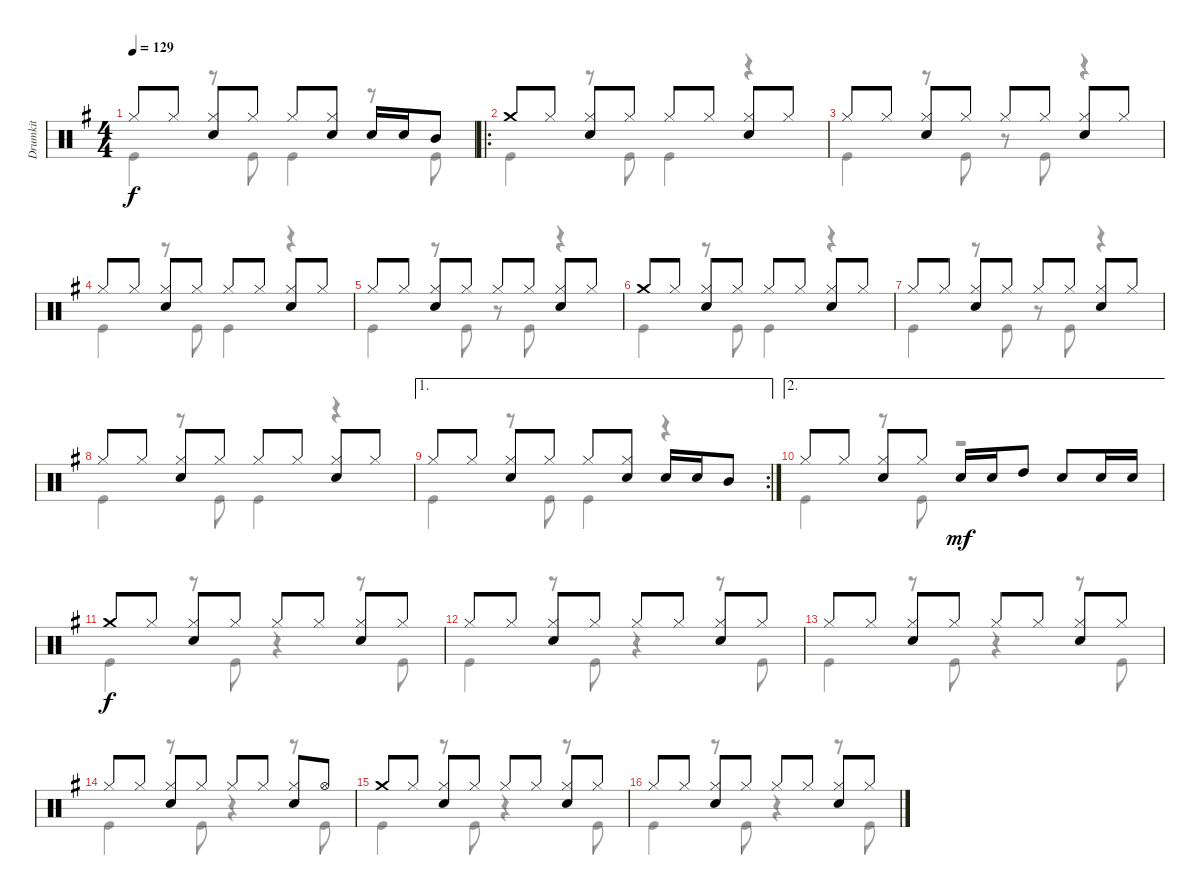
\track ("Drumkit" "Drumkit") {instrument percussion}
\staff {score}
\articulation defaults
\voice
\ts (4 4)
\tempo 129
\clef neutral
\ks g "Hi-Hat (closed)".8{dy f} "Hi-Hat (closed)".8
("Hi-Hat (closed)" "Snare (hit) 2").8 "Hi-Hat (closed)".8 "Hi-Hat (closed)".8 ("Hi-Hat (closed)" "Snare (hit) 2").8 "Snare (hit) 2".16 "Snare (hit) 2".16 "Mid Tom (hit)".8 |
\ro "Crash medium (hit)".8 "Hi-Hat (closed)".8
("Hi-Hat (closed)" "Snare (hit) 2").8 "Hi-Hat (closed)".8 "Hi-Hat (closed)".8 "Hi-Hat (closed)".8 ("Hi-Hat (closed)" "Snare (hit) 2").8 "Hi-Hat (closed)".8 |
"Hi-Hat (closed)".8 "Hi-Hat (closed)".8 ("Hi-Hat (closed)" "Snare (hit) 2").8 "Hi-Hat (closed)".8 "Hi-Hat (closed)".8 "Hi-Hat (closed)".8 ("Hi-Hat (closed)" "Snare (hit) 2").8 "Hi-Hat (closed)".8 |
"Hi-Hat (closed)".8 "Hi-Hat (closed)".8 ("Hi-Hat (closed)" "Snare (hit) 2").8 "Hi-Hat (closed)".8 "Hi-Hat (closed)".8 "Hi-Hat (closed)".8 ("Hi-Hat (closed)" "Snare (hit) 2").8 "Hi-Hat (closed)".8 |
"Hi-Hat (closed)".8 "Hi-Hat (closed)".8 ("Hi-Hat (closed)" "Snare (hit) 2").8 "Hi-Hat (closed)".8 "Hi-Hat (closed)".8 "Hi-Hat (closed)".8 ("Hi-Hat (closed)" "Snare (hit) 2").8 "Hi-Hat (closed)".8 |
"Crash medium (hit)".8 "Hi-Hat (closed)".8 ("Hi-Hat (closed)" "Snare (hit) 2").8 "Hi-Hat (closed)".8 "Hi-Hat (closed)".8 "Hi-Hat (closed)".8 ("Hi-Hat (closed)" "Snare (hit) 2").8 "Hi-Hat (closed)".8 |
"Hi-Hat (closed)".8 "Hi-Hat (closed)".8 ("Hi-Hat (closed)" "Snare (hit) 2").8 "Hi-Hat (closed)".8 "Hi-Hat (closed)".8 "Hi-Hat (closed)".8 ("Hi-Hat (closed)" "Snare (hit) 2").8 "Hi-Hat (closed)".8 |
"Hi-Hat (closed)".8 "Hi-Hat (closed)".8 ("Hi-Hat (closed)" "Snare (hit) 2").8 "Hi-Hat (closed)".8 "Hi-Hat (closed)".8 "Hi-Hat (closed)".8 ("Hi-Hat (closed)" "Snare (hit) 2").8 "Hi-Hat (closed)".8 |
\ae 1
\rc 2 "Hi-Hat (closed)".8 "Hi-Hat (closed)".8
("Hi-Hat (closed)" "Snare (hit) 2").8 "Hi-Hat (closed)".8 "Hi-Hat (closed)".8 ("Snare (hit) 2" "Hi-Hat (closed)").8 "Snare (hit) 2".16 "Snare (hit) 2".16 "Mid Tom (hit)".8 |
\ae 2 "Hi-Hat (closed)".8 "Hi-Hat (closed)".8
("Hi-Hat (closed)" "Snare (hit) 2").8 "Hi-Hat (closed)".8 "Snare (hit) 2".16{dy mf} "Snare (hit) 2".16 "High Tom (hit)".8 "Snare (hit) 2".8 "Snare (hit) 2".16 "Snare (hit) 2".16 |
"Crash medium (hit)".8{dy f} "Hi-Hat (closed)".8 ("Hi-Hat (closed)" "Snare (hit) 2").8 "Hi-Hat (closed)".8 "Hi-Hat (closed)".8 "Hi-Hat (closed)".8 ("Hi-Hat (closed)" "Snare (hit) 2").8 "Hi-Hat (closed)".8 |
"Hi-Hat (closed)".8 "Hi-Hat (closed)".8 ("Hi-Hat (closed)" "Snare (hit) 2").8 "Hi-Hat (closed)".8 "Hi-Hat (closed)".8 "Hi-Hat (closed)".8 ("Hi-Hat (closed)" "Snare (hit) 2").8 "Hi-Hat (closed)".8 |
"Hi-Hat (closed)".8 "Hi-Hat (closed)".8 ("Hi-Hat (closed)" "Snare (hit) 2").8 "Hi-Hat (closed)".8 "Hi-Hat (closed)".8 "Hi-Hat (closed)".8 ("Hi-Hat (closed)" "Snare (hit) 2").8 "Hi-Hat (closed)".8 |
"Hi-Hat (closed)".8 "Hi-Hat (closed)".8 ("Hi-Hat (closed)" "Snare (hit) 2").8 "Hi-Hat (closed)".8 "Hi-Hat (closed)".8 "Hi-Hat (closed)".8 ("Hi-Hat (closed)" "Snare (hit) 2").8 "Hi-Hat (open)".8 |
"Crash medium (hit)".8 "Hi-Hat (closed)".8 ("Hi-Hat (closed)" "Snare (hit) 2").8 "Hi-Hat (closed)".8 "Hi-Hat (closed)".8 "Hi-Hat (closed)".8 ("Hi-Hat (closed)" "Snare (hit) 2").8 "Hi-Hat (closed)".8 |
"Hi-Hat (closed)".8 "Hi-Hat (closed)".8 ("Hi-Hat (closed)" "Snare (hit) 2").8 "Hi-Hat (closed)".8 "Hi-Hat (closed)".8 "Hi-Hat (closed)".8 ("Hi-Hat (closed)" "Snare (hit) 2").8 "Hi-Hat (closed)".8
\voice
\clef neutral
\ottava regular
\simile none
\ks g "Kick (hit)".4{dy f}
r.8 "Kick (hit)".8 "Kick (hit)".4 r.8 "Kick (hit)".8 |
"Kick (hit)".4 r.8 "Kick (hit)".8 "Kick (hit)".4 r.4 |
"Kick (hit)".4 r.8 "Kick (hit)".8 r.8 "Kick (hit)".8 r.4 |
"Kick (hit)".4 r.8 "Kick (hit)".8 "Kick (hit)".4 r.4 |
"Kick (hit)".4 r.8 "Kick (hit)".8 r.8 "Kick (hit)".8 r.4 |
"Kick (hit)".4 r.8 "Kick (hit)".8 "Kick (hit)".4 r.4 |
"Kick (hit)".4 r.8 "Kick (hit)".8 r.8 "Kick (hit)".8 r.4 |
"Kick (hit)".4 r.8 "Kick (hit)".8 "Kick (hit)".4 r.4 |
"Kick (hit)".4 r.8 "Kick (hit)".8 "Kick (hit)".4 r.4 |
"Kick (hit)".4 r.8 "Kick (hit)".8 r.2 |
"Kick (hit)".4 r.8 "Kick (hit)".8 r.4 r.8 "Kick (hit)".8 |
"Kick (hit)".4 r.8 "Kick (hit)".8 r.4 r.8 "Kick (hit)".8 |
"Kick (hit)".4 r.8 "Kick (hit)".8 r.4 r.8 "Kick (hit)".8 |
"Kick (hit)".4 r.8 "Kick (hit)".8 r.4 r.8 "Kick (hit)".8 |
"Kick (hit)".4 r.8 "Kick (hit)".8 r.4 r.8 "Kick (hit)".8 |
"Kick (hit)".4 r.8 "Kick (hit)".8 r.4 r.8 "Kick (hit)".8
